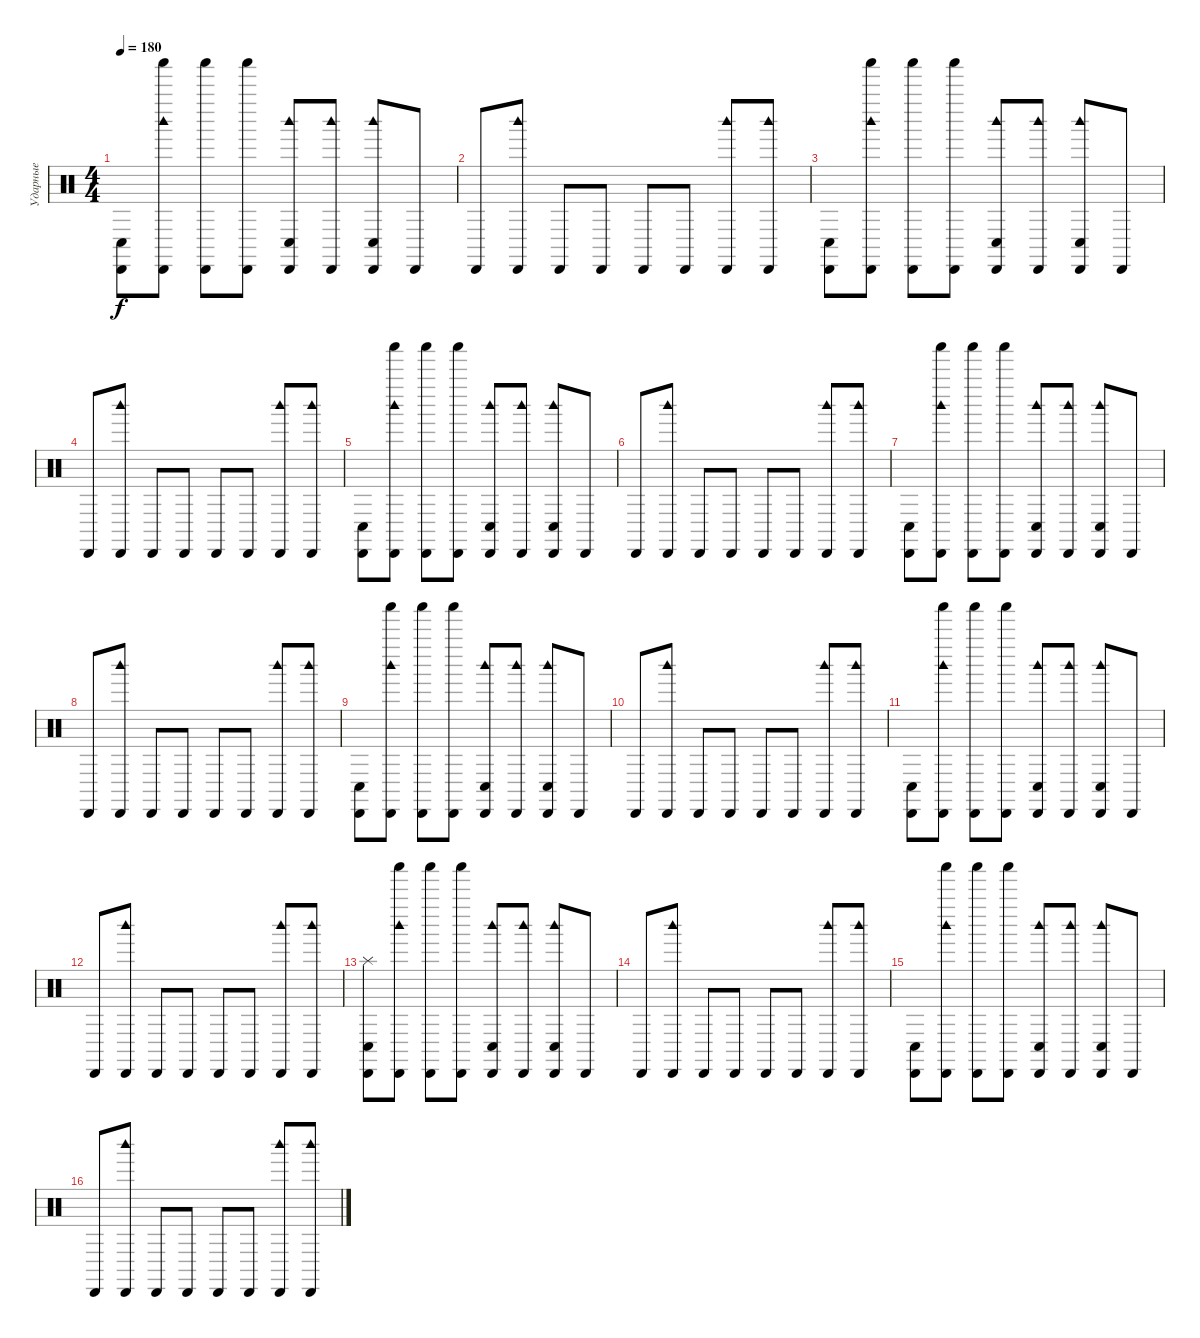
\track ("Ударные" "Ударные") {instrument percussion}
\staff {score}
\articulation defaults
\ts (4 4)
\tempo 180
\clef neutral
\ks c
("Cabasa (hit)" "Conga low (hit)").8{dy f} ("Woodblock high (hit)" "Shaker (hit)" "Cabasa (hit)").8 ("Shaker (hit)" "Cabasa (hit)").8 ("Shaker (hit)" "Cabasa (hit)").8 ("Woodblock high (hit)" "Cabasa (hit)" "Conga low (hit)").8 ("Woodblock high (hit)" "Cabasa (hit)").8 ("Woodblock high (hit)" "Cabasa (hit)" "Conga low (hit)").8 "Cabasa (hit)".8 |
"Cabasa (hit)".8 ("Woodblock high (hit)" "Cabasa (hit)").8 "Cabasa (hit)".8 "Cabasa (hit)".8 "Cabasa (hit)".8 "Cabasa (hit)".8 ("Woodblock high (hit)" "Cabasa (hit)").8 ("Woodblock high (hit)" "Cabasa (hit)").8 |
("Cabasa (hit)" "Conga low (hit)").8 ("Woodblock high (hit)" "Shaker (hit)" "Cabasa (hit)").8 ("Shaker (hit)" "Cabasa (hit)").8 ("Shaker (hit)" "Cabasa (hit)").8 ("Woodblock high (hit)" "Cabasa (hit)" "Conga low (hit)").8 ("Woodblock high (hit)" "Cabasa (hit)").8 ("Woodblock high (hit)" "Cabasa (hit)" "Conga low (hit)").8 "Cabasa (hit)".8 |
"Cabasa (hit)".8 ("Woodblock high (hit)" "Cabasa (hit)").8 "Cabasa (hit)".8 "Cabasa (hit)".8 "Cabasa (hit)".8 "Cabasa (hit)".8 ("Woodblock high (hit)" "Cabasa (hit)").8 ("Woodblock high (hit)" "Cabasa (hit)").8 |
("Cabasa (hit)" "Conga low (hit)").8 ("Woodblock high (hit)" "Shaker (hit)" "Cabasa (hit)").8 ("Shaker (hit)" "Cabasa (hit)").8 ("Shaker (hit)" "Cabasa (hit)").8 ("Woodblock high (hit)" "Cabasa (hit)" "Conga low (hit)").8 ("Woodblock high (hit)" "Cabasa (hit)").8 ("Woodblock high (hit)" "Cabasa (hit)" "Conga low (hit)").8 "Cabasa (hit)".8 |
"Cabasa (hit)".8 ("Woodblock high (hit)" "Cabasa (hit)").8 "Cabasa (hit)".8 "Cabasa (hit)".8 "Cabasa (hit)".8 "Cabasa (hit)".8 ("Woodblock high (hit)" "Cabasa (hit)").8 ("Woodblock high (hit)" "Cabasa (hit)").8 |
("Cabasa (hit)" "Conga low (hit)").8 ("Woodblock high (hit)" "Shaker (hit)" "Cabasa (hit)").8 ("Shaker (hit)" "Cabasa (hit)").8 ("Shaker (hit)" "Cabasa (hit)").8 ("Woodblock high (hit)" "Cabasa (hit)" "Conga low (hit)").8 ("Woodblock high (hit)" "Cabasa (hit)").8 ("Woodblock high (hit)" "Cabasa (hit)" "Conga low (hit)").8 "Cabasa (hit)".8 |
"Cabasa (hit)".8 ("Woodblock high (hit)" "Cabasa (hit)").8 "Cabasa (hit)".8 "Cabasa (hit)".8 "Cabasa (hit)".8 "Cabasa (hit)".8 ("Woodblock high (hit)" "Cabasa (hit)").8 ("Woodblock high (hit)" "Cabasa (hit)").8 |
("Cabasa (hit)" "Conga low (hit)").8 ("Woodblock high (hit)" "Shaker (hit)" "Cabasa (hit)").8 ("Shaker (hit)" "Cabasa (hit)").8 ("Shaker (hit)" "Cabasa (hit)").8 ("Woodblock high (hit)" "Cabasa (hit)" "Conga low (hit)").8 ("Woodblock high (hit)" "Cabasa (hit)").8 ("Woodblock high (hit)" "Cabasa (hit)" "Conga low (hit)").8 "Cabasa (hit)".8 |
"Cabasa (hit)".8 ("Woodblock high (hit)" "Cabasa (hit)").8 "Cabasa (hit)".8 "Cabasa (hit)".8 "Cabasa (hit)".8 "Cabasa (hit)".8 ("Woodblock high (hit)" "Cabasa (hit)").8 ("Woodblock high (hit)" "Cabasa (hit)").8 |
("Cabasa (hit)" "Conga low (hit)").8 ("Woodblock high (hit)" "Shaker (hit)" "Cabasa (hit)").8 ("Shaker (hit)" "Cabasa (hit)").8 ("Shaker (hit)" "Cabasa (hit)").8 ("Woodblock high (hit)" "Cabasa (hit)" "Conga low (hit)").8 ("Woodblock high (hit)" "Cabasa (hit)").8 ("Woodblock high (hit)" "Cabasa (hit)" "Conga low (hit)").8 "Cabasa (hit)".8 |
"Cabasa (hit)".8 ("Woodblock high (hit)" "Cabasa (hit)").8 "Cabasa (hit)".8 "Cabasa (hit)".8 "Cabasa (hit)".8 "Cabasa (hit)".8 ("Woodblock high (hit)" "Cabasa (hit)").8 ("Woodblock high (hit)" "Cabasa (hit)").8 |
("Cabasa (hit)" "Splash (hit)" "Conga low (hit)").8 ("Woodblock high (hit)" "Shaker (hit)" "Cabasa (hit)").8 ("Shaker (hit)" "Cabasa (hit)").8 ("Shaker (hit)" "Cabasa (hit)").8 ("Woodblock high (hit)" "Cabasa (hit)" "Conga low (hit)").8 ("Woodblock high (hit)" "Cabasa (hit)").8 ("Woodblock high (hit)" "Cabasa (hit)" "Conga low (hit)").8 "Cabasa (hit)".8 |
"Cabasa (hit)".8 ("Woodblock high (hit)" "Cabasa (hit)").8 "Cabasa (hit)".8 "Cabasa (hit)".8 "Cabasa (hit)".8 "Cabasa (hit)".8 ("Woodblock high (hit)" "Cabasa (hit)").8 ("Woodblock high (hit)" "Cabasa (hit)").8 |
("Cabasa (hit)" "Conga low (hit)").8 ("Woodblock high (hit)" "Shaker (hit)" "Cabasa (hit)").8 ("Shaker (hit)" "Cabasa (hit)").8 ("Shaker (hit)" "Cabasa (hit)").8 ("Woodblock high (hit)" "Cabasa (hit)" "Conga low (hit)").8 ("Woodblock high (hit)" "Cabasa (hit)").8 ("Woodblock high (hit)" "Cabasa (hit)" "Conga low (hit)").8 "Cabasa (hit)".8 |
"Cabasa (hit)".8 ("Woodblock high (hit)" "Cabasa (hit)").8 "Cabasa (hit)".8 "Cabasa (hit)".8 "Cabasa (hit)".8 "Cabasa (hit)".8 ("Woodblock high (hit)" "Cabasa (hit)").8 ("Woodblock high (hit)" "Cabasa (hit)").8
